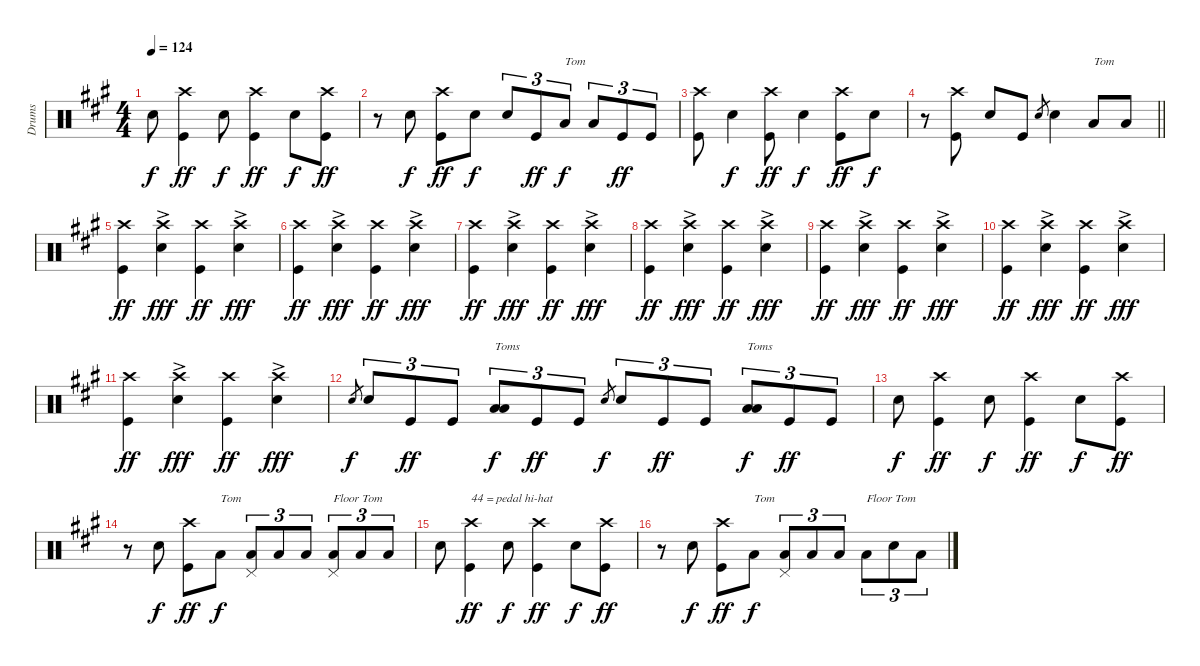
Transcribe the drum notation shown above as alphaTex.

\track ("Drums" "Drums") {instrument percussion}
\staff {score}
\articulation defaults
\ts (4 4)
\tempo 124
\clef neutral
\ks a "Snare (hit) 2".8{dy f}
("Crash high (hit)" "Kick (hit)").4{dy ff} "Snare (hit) 2".8{dy f} ("Crash high (hit)" "Kick (hit)").4{dy ff} "Snare (hit) 2".8{dy f} ("Crash high (hit)" "Kick (hit)").8{dy ff} |
r.8 "Snare (hit) 2".8{dy f} ("Crash high (hit)" "Kick (hit)").8{dy ff} "Snare (hit) 2".8{dy f} "Snare (hit) 2".8{tu (3 2)} "Kick (hit)".8{tu (3 2) dy ff} "Low Tom (hit)".8{tu (3 2) txt "Tom" dy f} "Low Tom (hit)".8{tu (3 2)} "Kick (hit)".8{tu (3 2) dy ff} "Kick (hit)".8{tu (3 2)} |
("Crash high (hit)" "Kick (hit)").8 "Snare (hit) 2".4{dy f} ("Crash high (hit)" "Kick (hit)").8{dy ff} "Snare (hit) 2".4{dy f} ("Crash high (hit)" "Kick (hit)").8{dy ff} "Snare (hit) 2".8{dy f} |
\barLineRight lightlight
r.8 ("Crash high (hit)" "Kick (hit)").8 "Snare (hit) 2".8 "Kick (hit)".8 "Snare (hit) 2".8{gr} "Snare (hit) 2".4 "Low Tom (hit)".8{txt "Tom"} "Low Tom (hit)".8 |
("Crash high (hit)" "Kick (hit)").4{dy ff} ("Crash high (hit)"{ac} "Snare (hit) 2").4{dy fff} ("Crash high (hit)" "Kick (hit)").4{dy ff} ("Crash high (hit)"{ac} "Snare (hit) 2").4{dy fff} |
("Crash high (hit)" "Kick (hit)").4{dy ff} ("Crash high (hit)"{ac} "Snare (hit) 2").4{dy fff} ("Crash high (hit)" "Kick (hit)").4{dy ff} ("Crash high (hit)"{ac} "Snare (hit) 2").4{dy fff} |
("Crash high (hit)" "Kick (hit)").4{dy ff} ("Crash high (hit)"{ac} "Snare (hit) 2").4{dy fff} ("Crash high (hit)" "Kick (hit)").4{dy ff} ("Crash high (hit)"{ac} "Snare (hit) 2").4{dy fff} |
("Crash high (hit)" "Kick (hit)").4{dy ff} ("Crash high (hit)"{ac} "Snare (hit) 2").4{dy fff} ("Crash high (hit)" "Kick (hit)").4{dy ff} ("Crash high (hit)"{ac} "Snare (hit) 2").4{dy fff} |
("Crash high (hit)" "Kick (hit)").4{dy ff} ("Crash high (hit)"{ac} "Snare (hit) 2").4{dy fff} ("Crash high (hit)" "Kick (hit)").4{dy ff} ("Crash high (hit)"{ac} "Snare (hit) 2").4{dy fff} |
("Crash high (hit)" "Kick (hit)").4{dy ff} ("Crash high (hit)"{ac} "Snare (hit) 2").4{dy fff} ("Crash high (hit)" "Kick (hit)").4{dy ff} ("Crash high (hit)"{ac} "Snare (hit) 2").4{dy fff} |
("Crash high (hit)" "Kick (hit)").4{dy ff} ("Crash high (hit)"{ac} "Snare (hit) 2").4{dy fff} ("Crash high (hit)" "Kick (hit)").4{dy ff} ("Crash high (hit)"{ac} "Snare (hit) 2").4{dy fff} |
"Snare (hit) 2".8{gr dy f} "Snare (hit) 2".8{tu (3 2)} "Kick (hit)".8{tu (3 2) dy ff} "Kick (hit)".8{tu (3 2)} ("Low Tom (hit)" "Low Floor Tom (hit)").8{tu (3 2) txt "Toms" dy f} "Kick (hit)".8{tu (3 2) dy ff} "Kick (hit)".8{tu (3 2)} "Snare (hit) 2".8{gr dy f} "Snare (hit) 2".8{tu (3 2)} "Kick (hit)".8{tu (3 2) dy ff} "Kick (hit)".8{tu (3 2)} ("Low Tom (hit)" "Low Floor Tom (hit)").8{tu (3 2) txt "Toms" dy f} "Kick (hit)".8{tu (3 2) dy ff} "Kick (hit)".8{tu (3 2)} |
"Snare (hit) 2".8{dy f} ("Crash high (hit)" "Kick (hit)").4{dy ff} "Snare (hit) 2".8{dy f} ("Crash high (hit)" "Kick (hit)").4{dy ff} "Snare (hit) 2".8{dy f} ("Crash high (hit)" "Kick (hit)").8{dy ff} |
r.8 "Snare (hit) 2".8{dy f} ("Crash high (hit)" "Kick (hit)").8{dy ff} "Low Tom (hit)".8{txt "Tom" dy f} ("Pedal Hi-Hat (hit)" "Low Tom (hit)").8{tu (3 2)} "Low Tom (hit)".8{tu (3 2)} "Low Tom (hit)".8{tu (3 2)} ("Pedal Hi-Hat (hit)" "Low Floor Tom (hit)").8{tu (3 2) txt "Floor Tom"} "Low Floor Tom (hit)".8{tu (3 2)} "Low Floor Tom (hit)".8{tu (3 2)} |
"Snare (hit) 2".8 ("Crash high (hit)" "Kick (hit)").4{txt "44 = pedal hi-hat" dy ff} "Snare (hit) 2".8{dy f} ("Crash high (hit)" "Kick (hit)").4{dy ff} "Snare (hit) 2".8{dy f} ("Crash high (hit)" "Kick (hit)").8{dy ff} |
r.8 "Snare (hit) 2".8{dy f} ("Crash high (hit)" "Kick (hit)").8{dy ff} "Low Tom (hit)".8{txt "Tom" dy f} ("Pedal Hi-Hat (hit)" "Low Tom (hit)").8{tu (3 2)} "Low Tom (hit)".8{tu (3 2)} "Low Tom (hit)".8{tu (3 2)} "Low Tom (hit)".8{tu (3 2) txt "Floor Tom"} "Snare (hit) 2".8{tu (3 2)} "Low Floor Tom (hit)".8{tu (3 2)}
